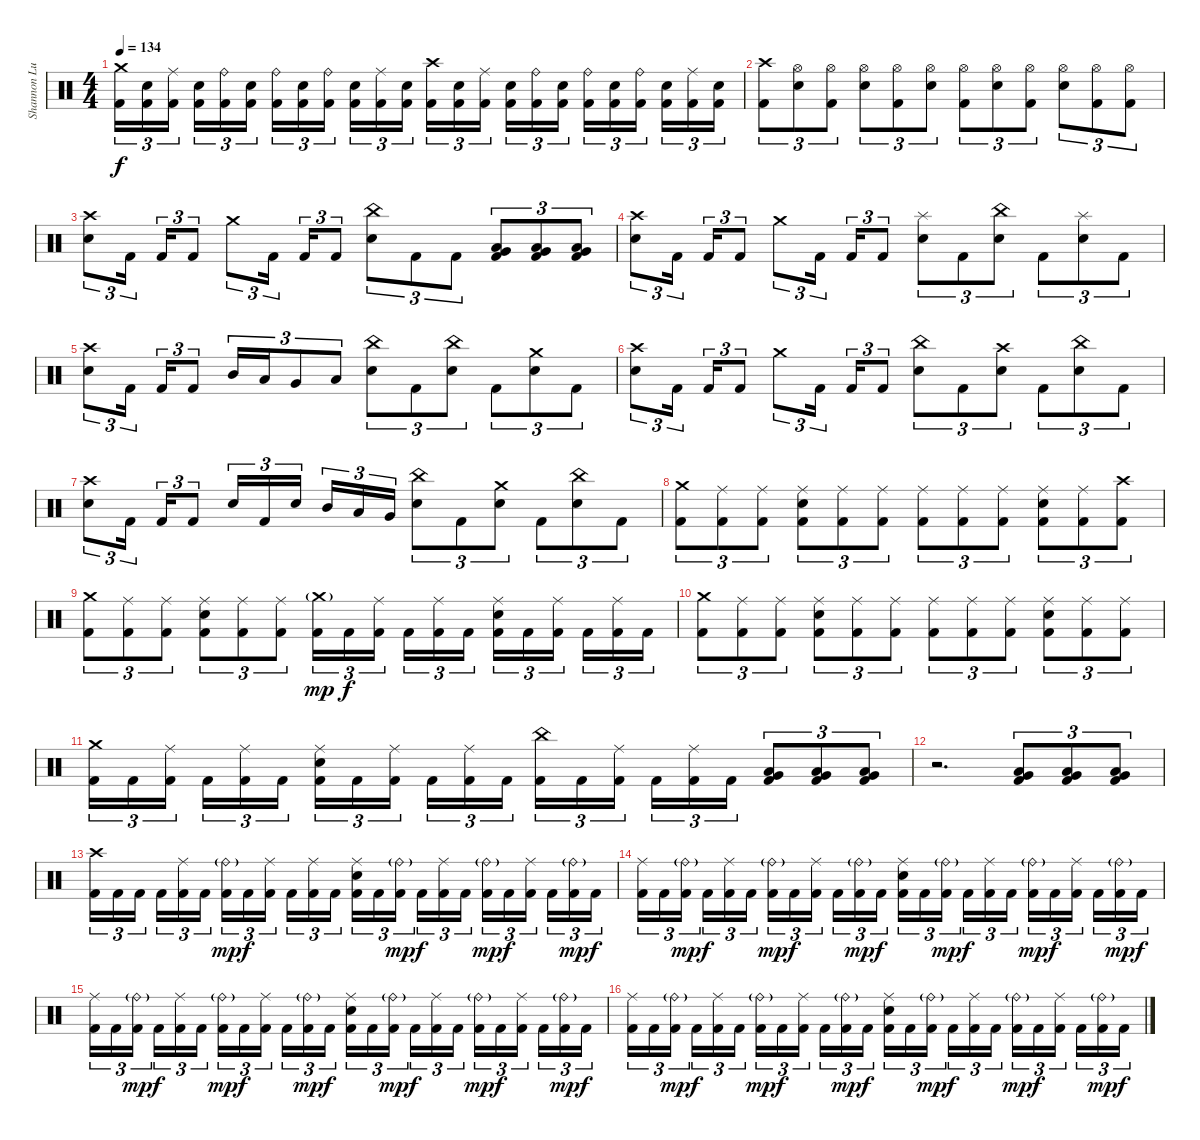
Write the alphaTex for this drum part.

\track ("Shannon Lucas [Drums (Since 2007)]" "Shannon Lu") {instrument percussion}
\staff {score}
\articulation defaults
\ts (4 4)
\tempo 134
\clef neutral
\ks c
("Crash medium (hit)" "Kick (hit) 2").16{tu (3 2) dy f} ("Snare (hit) 2" "Kick (hit) 2").16{tu (3 2)} ("Ride (middle)" "Kick (hit) 2").16{tu (3 2)} ("Snare (hit) 2" "Kick (hit) 2").16{tu (3 2)} ("Ride (bell)" "Kick (hit) 2").16{tu (3 2)} ("Snare (hit) 2" "Kick (hit) 2").16{tu (3 2)} ("Ride (bell)" "Kick (hit) 2").16{tu (3 2)} ("Snare (hit) 2" "Kick (hit) 2").16{tu (3 2)} ("Ride (bell)" "Kick (hit) 2").16{tu (3 2)} ("Snare (hit) 2" "Kick (hit) 2").16{tu (3 2)} ("Ride (middle)" "Kick (hit) 2").16{tu (3 2)} ("Snare (hit) 2" "Kick (hit) 2").16{tu (3 2)} ("Crash high (hit)" "Kick (hit) 2").16{tu (3 2)} ("Snare (hit) 2" "Kick (hit) 2").16{tu (3 2)} ("Ride (middle)" "Kick (hit) 2").16{tu (3 2)} ("Snare (hit) 2" "Kick (hit) 2").16{tu (3 2)} ("Ride (bell)" "Kick (hit) 2").16{tu (3 2)} ("Snare (hit) 2" "Kick (hit) 2").16{tu (3 2)} ("Ride (bell)" "Kick (hit) 2").16{tu (3 2)} ("Snare (hit) 2" "Kick (hit) 2").16{tu (3 2)} ("Ride (bell)" "Kick (hit) 2").16{tu (3 2)} ("Snare (hit) 2" "Kick (hit) 2").16{tu (3 2)} ("Ride (middle)" "Kick (hit) 2").16{tu (3 2)} ("Snare (hit) 2" "Kick (hit) 2").16{tu (3 2)} |
("Crash high (hit)" "Kick (hit) 2").8{tu (3 2)} ("Hi-Hat (open)" "Snare (hit) 2").8{tu (3 2)} ("Hi-Hat (open)" "Kick (hit) 2").8{tu (3 2)} ("Hi-Hat (open)" "Snare (hit) 2").8{tu (3 2)} ("Hi-Hat (open)" "Kick (hit) 2").8{tu (3 2)} ("Hi-Hat (open)" "Snare (hit) 2").8{tu (3 2)} ("Hi-Hat (open)" "Kick (hit) 2").8{tu (3 2)} ("Hi-Hat (open)" "Snare (hit) 2").8{tu (3 2)} ("Hi-Hat (open)" "Kick (hit) 2").8{tu (3 2)} ("Hi-Hat (open)" "Snare (hit) 2").8{tu (3 2)} ("Hi-Hat (open)" "Kick (hit) 2").8{tu (3 2)} ("Hi-Hat (open)" "Kick (hit) 2").8{tu (3 2)} |
("Crash high (hit)" "Snare (hit) 2").8{tu (3 2)} "Kick (hit) 2".16{tu (3 2)} "Kick (hit) 2".16{tu (3 2)} "Kick (hit) 2".8{tu (3 2)} "Crash medium (hit)".8{tu (3 2)} "Kick (hit) 2".16{tu (3 2)} "Kick (hit) 2".16{tu (3 2)} "Kick (hit) 2".8{tu (3 2)} ("China (hit)" "Snare (hit) 2").8{tu (3 2)} "Kick (hit) 2".8{tu (3 2)} "Kick (hit) 2".8{tu (3 2)} ("Low Floor Tom (hit)" "Very Low Tom (hit)" "Kick (hit) 2").8{tu (3 2)} ("Low Floor Tom (hit)" "Very Low Tom (hit)" "Kick (hit) 2").8{tu (3 2)} ("Low Floor Tom (hit)" "Very Low Tom (hit)" "Kick (hit) 2").8{tu (3 2)} |
("Crash high (hit)" "Snare (hit) 2").8{tu (3 2)} "Kick (hit) 2".16{tu (3 2)} "Kick (hit) 2".16{tu (3 2)} "Kick (hit) 2".8{tu (3 2)} "Crash medium (hit)".8{tu (3 2)} "Kick (hit) 2".16{tu (3 2)} "Kick (hit) 2".16{tu (3 2)} "Kick (hit) 2".8{tu (3 2)} ("Splash (hit)" "Snare (hit) 2").8{tu (3 2)} "Kick (hit) 2".8{tu (3 2)} ("China (hit)" "Snare (hit) 2").8{tu (3 2)} "Kick (hit) 2".8{tu (3 2)} ("Splash (hit)" "Snare (hit) 2").8{tu (3 2)} "Kick (hit) 2".8{tu (3 2)} |
("Crash high (hit)" "Snare (hit) 2").8{tu (3 2)} "Kick (hit) 2".16{tu (3 2)} "Kick (hit) 2".16{tu (3 2)} "Kick (hit) 2".8{tu (3 2)} "Mid Tom (hit)".16{tu (3 2)} "Low Tom (hit)".16{tu (3 2)} "Very Low Tom (hit)".8{tu (3 2)} "Low Floor Tom (hit)".8{tu (3 2)} ("China (hit)" "Snare (hit) 2").8{tu (3 2)} "Kick (hit) 2".8{tu (3 2)} ("China (hit)" "Snare (hit) 2").8{tu (3 2)} "Kick (hit) 2".8{tu (3 2)} ("Crash medium (hit)" "Snare (hit) 2").8{tu (3 2)} "Kick (hit) 2".8{tu (3 2)} |
("Crash high (hit)" "Snare (hit) 2").8{tu (3 2)} "Kick (hit) 2".16{tu (3 2)} "Kick (hit) 2".16{tu (3 2)} "Kick (hit) 2".8{tu (3 2)} "Crash medium (hit)".8{tu (3 2)} "Kick (hit) 2".16{tu (3 2)} "Kick (hit) 2".16{tu (3 2)} "Kick (hit) 2".8{tu (3 2)} ("China (hit)" "Snare (hit) 2").8{tu (3 2)} "Kick (hit) 2".8{tu (3 2)} ("Crash high (hit)" "Snare (hit) 2").8{tu (3 2)} "Kick (hit) 2".8{tu (3 2)} ("China (hit)" "Snare (hit) 2").8{tu (3 2)} "Kick (hit) 2".8{tu (3 2)} |
("Crash high (hit)" "Snare (hit) 2").8{tu (3 2)} "Kick (hit) 2".16{tu (3 2)} "Kick (hit) 2".16{tu (3 2)} "Kick (hit) 2".8{tu (3 2)} "Snare (hit) 2".16{tu (3 2)} "Kick (hit) 2".16{tu (3 2)} "Snare (hit) 2".16{tu (3 2)} "Mid Tom (hit)".16{tu (3 2)} "Low Tom (hit)".16{tu (3 2)} "Very Low Tom (hit)".16{tu (3 2)} ("China (hit)" "Snare (hit) 2").8{tu (3 2)} "Kick (hit) 2".8{tu (3 2)} ("Crash medium (hit)" "Snare (hit) 2").8{tu (3 2)} "Kick (hit) 2".8{tu (3 2)} ("China (hit)" "Snare (hit) 2").8{tu (3 2)} "Kick (hit) 2".8{tu (3 2)} |
("Crash medium (hit)" "Kick (hit) 2").8{tu (3 2)} ("Ride (middle)" "Kick (hit) 2").8{tu (3 2)} ("Ride (middle)" "Kick (hit) 2").8{tu (3 2)} ("Ride (middle)" "Snare (hit) 2" "Kick (hit) 2").8{tu (3 2)} ("Ride (middle)" "Kick (hit) 2").8{tu (3 2)} ("Ride (middle)" "Kick (hit) 2").8{tu (3 2)} ("Ride (middle)" "Kick (hit) 2").8{tu (3 2)} ("Ride (middle)" "Kick (hit) 2").8{tu (3 2)} ("Ride (middle)" "Kick (hit) 2").8{tu (3 2)} ("Ride (middle)" "Snare (hit) 2" "Kick (hit) 2").8{tu (3 2)} ("Ride (middle)" "Kick (hit) 2").8{tu (3 2)} ("Crash high (hit)" "Kick (hit) 2").8{tu (3 2)} |
("Crash medium (hit)" "Kick (hit) 2").8{tu (3 2)} ("Ride (middle)" "Kick (hit) 2").8{tu (3 2)} ("Ride (middle)" "Kick (hit) 2").8{tu (3 2)} ("Ride (middle)" "Snare (hit) 2" "Kick (hit) 2").8{tu (3 2)} ("Ride (middle)" "Kick (hit) 2").8{tu (3 2)} ("Ride (middle)" "Kick (hit) 2").8{tu (3 2)} ("Crash medium (hit)"{g} "Kick (hit) 2").16{tu (3 2) dy mp} "Kick (hit) 2".16{tu (3 2) dy f} ("Ride (middle)" "Kick (hit) 2").16{tu (3 2)} "Kick (hit) 2".16{tu (3 2)} ("Ride (middle)" "Kick (hit) 2").16{tu (3 2)} "Kick (hit) 2".16{tu (3 2)} ("Snare (hit) 2" "Ride (middle)" "Kick (hit) 2").16{tu (3 2)} "Kick (hit) 2".16{tu (3 2)} ("Ride (middle)" "Kick (hit) 2").16{tu (3 2)} "Kick (hit) 2".16{tu (3 2)} ("Ride (middle)" "Kick (hit) 2").16{tu (3 2)} "Kick (hit) 2".16{tu (3 2)} |
("Crash medium (hit)" "Kick (hit) 2").8{tu (3 2)} ("Ride (middle)" "Kick (hit) 2").8{tu (3 2)} ("Ride (middle)" "Kick (hit) 2").8{tu (3 2)} ("Ride (middle)" "Snare (hit) 2" "Kick (hit) 2").8{tu (3 2)} ("Ride (middle)" "Kick (hit) 2").8{tu (3 2)} ("Ride (middle)" "Kick (hit) 2").8{tu (3 2)} ("Ride (middle)" "Kick (hit) 2").8{tu (3 2)} ("Ride (middle)" "Kick (hit) 2").8{tu (3 2)} ("Ride (middle)" "Kick (hit) 2").8{tu (3 2)} ("Ride (middle)" "Snare (hit) 2" "Kick (hit) 2").8{tu (3 2)} ("Ride (middle)" "Kick (hit) 2").8{tu (3 2)} ("Ride (middle)" "Kick (hit) 2").8{tu (3 2)} |
("Crash medium (hit)" "Kick (hit) 2").16{tu (3 2)} "Kick (hit) 2".16{tu (3 2)} ("Ride (middle)" "Kick (hit) 2").16{tu (3 2)} "Kick (hit) 2".16{tu (3 2)} ("Ride (middle)" "Kick (hit) 2").16{tu (3 2)} "Kick (hit) 2".16{tu (3 2)} ("Ride (middle)" "Snare (hit) 2" "Kick (hit) 2").16{tu (3 2)} "Kick (hit) 2".16{tu (3 2)} ("Ride (middle)" "Kick (hit) 2").16{tu (3 2)} "Kick (hit) 2".16{tu (3 2)} ("Ride (middle)" "Kick (hit) 2").16{tu (3 2)} "Kick (hit) 2".16{tu (3 2)} ("China (hit)" "Kick (hit) 2").16{tu (3 2)} "Kick (hit) 2".16{tu (3 2)} ("Ride (middle)" "Kick (hit) 2").16{tu (3 2)} "Kick (hit) 2".16{tu (3 2)} ("Ride (middle)" "Kick (hit) 2").16{tu (3 2)} "Kick (hit) 2".16{tu (3 2)} ("Low Floor Tom (hit)" "Very Low Tom (hit)" "Kick (hit) 2").8{tu (3 2)} ("Low Floor Tom (hit)" "Very Low Tom (hit)" "Kick (hit) 2").8{tu (3 2)} ("Low Floor Tom (hit)" "Very Low Tom (hit)" "Kick (hit) 2").8{tu (3 2)} |
r.2{d} ("Very Low Tom (hit)" "Low Floor Tom (hit)" "Kick (hit) 2").8{tu (3 2)} ("Very Low Tom (hit)" "Low Floor Tom (hit)" "Kick (hit) 2").8{tu (3 2)} ("Very Low Tom (hit)" "Low Floor Tom (hit)" "Kick (hit) 2").8{tu (3 2)} |
("Crash high (hit)" "Kick (hit) 2").16{tu (3 2)} "Kick (hit) 2".16{tu (3 2)} "Kick (hit) 2".16{tu (3 2)} "Kick (hit) 2".16{tu (3 2)} ("Ride (middle)" "Kick (hit) 2").16{tu (3 2)} "Kick (hit) 2".16{tu (3 2)} ("Ride (bell)"{g} "Kick (hit) 2").16{tu (3 2) dy mp} "Kick (hit) 2".16{tu (3 2) dy f} ("Ride (middle)" "Kick (hit) 2").16{tu (3 2)} "Kick (hit) 2".16{tu (3 2)} ("Ride (middle)" "Kick (hit) 2").16{tu (3 2)} "Kick (hit) 2".16{tu (3 2)} ("Snare (hit) 2" "Ride (middle)" "Kick (hit) 2").16{tu (3 2)} "Kick (hit) 2".16{tu (3 2)} ("Ride (bell)"{g} "Kick (hit) 2").16{tu (3 2) dy mp} "Kick (hit) 2".16{tu (3 2) dy f} ("Ride (middle)" "Kick (hit) 2").16{tu (3 2)} "Kick (hit) 2".16{tu (3 2)} ("Ride (bell)"{g} "Kick (hit) 2").16{tu (3 2) dy mp} "Kick (hit) 2".16{tu (3 2) dy f} ("Ride (middle)" "Kick (hit) 2").16{tu (3 2)} "Kick (hit) 2".16{tu (3 2)} ("Ride (bell)"{g} "Kick (hit) 2").16{tu (3 2) dy mp} "Kick (hit) 2".16{tu (3 2) dy f} |
("Ride (middle)" "Kick (hit) 2").16{tu (3 2)} "Kick (hit) 2".16{tu (3 2)} ("Ride (bell)"{g} "Kick (hit) 2").16{tu (3 2) dy mp} "Kick (hit) 2".16{tu (3 2) dy f} ("Ride (middle)" "Kick (hit) 2").16{tu (3 2)} "Kick (hit) 2".16{tu (3 2)} ("Ride (bell)"{g} "Kick (hit) 2").16{tu (3 2) dy mp} "Kick (hit) 2".16{tu (3 2) dy f} ("Ride (middle)" "Kick (hit) 2").16{tu (3 2)} "Kick (hit) 2".16{tu (3 2)} ("Ride (bell)"{g} "Kick (hit) 2").16{tu (3 2) dy mp} "Kick (hit) 2".16{tu (3 2) dy f} ("Snare (hit) 2" "Ride (middle)" "Kick (hit) 2").16{tu (3 2)} "Kick (hit) 2".16{tu (3 2)} ("Ride (bell)"{g} "Kick (hit) 2").16{tu (3 2) dy mp} "Kick (hit) 2".16{tu (3 2) dy f} ("Ride (middle)" "Kick (hit) 2").16{tu (3 2)} "Kick (hit) 2".16{tu (3 2)} ("Ride (bell)"{g} "Kick (hit) 2").16{tu (3 2) dy mp} "Kick (hit) 2".16{tu (3 2) dy f} ("Ride (middle)" "Kick (hit) 2").16{tu (3 2)} "Kick (hit) 2".16{tu (3 2)} ("Ride (bell)"{g} "Kick (hit) 2").16{tu (3 2) dy mp} "Kick (hit) 2".16{tu (3 2) dy f} |
("Ride (middle)" "Kick (hit) 2").16{tu (3 2)} "Kick (hit) 2".16{tu (3 2)} ("Ride (bell)"{g} "Kick (hit) 2").16{tu (3 2) dy mp} "Kick (hit) 2".16{tu (3 2) dy f} ("Ride (middle)" "Kick (hit) 2").16{tu (3 2)} "Kick (hit) 2".16{tu (3 2)} ("Ride (bell)"{g} "Kick (hit) 2").16{tu (3 2) dy mp} "Kick (hit) 2".16{tu (3 2) dy f} ("Ride (middle)" "Kick (hit) 2").16{tu (3 2)} "Kick (hit) 2".16{tu (3 2)} ("Ride (bell)"{g} "Kick (hit) 2").16{tu (3 2) dy mp} "Kick (hit) 2".16{tu (3 2) dy f} ("Snare (hit) 2" "Ride (middle)" "Kick (hit) 2").16{tu (3 2)} "Kick (hit) 2".16{tu (3 2)} ("Ride (bell)"{g} "Kick (hit) 2").16{tu (3 2) dy mp} "Kick (hit) 2".16{tu (3 2) dy f} ("Ride (middle)" "Kick (hit) 2").16{tu (3 2)} "Kick (hit) 2".16{tu (3 2)} ("Ride (bell)"{g} "Kick (hit) 2").16{tu (3 2) dy mp} "Kick (hit) 2".16{tu (3 2) dy f} ("Ride (middle)" "Kick (hit) 2").16{tu (3 2)} "Kick (hit) 2".16{tu (3 2)} ("Ride (bell)"{g} "Kick (hit) 2").16{tu (3 2) dy mp} "Kick (hit) 2".16{tu (3 2) dy f} |
("Ride (middle)" "Kick (hit) 2").16{tu (3 2)} "Kick (hit) 2".16{tu (3 2)} ("Ride (bell)"{g} "Kick (hit) 2").16{tu (3 2) dy mp} "Kick (hit) 2".16{tu (3 2) dy f} ("Ride (middle)" "Kick (hit) 2").16{tu (3 2)} "Kick (hit) 2".16{tu (3 2)} ("Ride (bell)"{g} "Kick (hit) 2").16{tu (3 2) dy mp} "Kick (hit) 2".16{tu (3 2) dy f} ("Ride (middle)" "Kick (hit) 2").16{tu (3 2)} "Kick (hit) 2".16{tu (3 2)} ("Ride (bell)"{g} "Kick (hit) 2").16{tu (3 2) dy mp} "Kick (hit) 2".16{tu (3 2) dy f} ("Snare (hit) 2" "Ride (middle)" "Kick (hit) 2").16{tu (3 2)} "Kick (hit) 2".16{tu (3 2)} ("Ride (bell)"{g} "Kick (hit) 2").16{tu (3 2) dy mp} "Kick (hit) 2".16{tu (3 2) dy f} ("Ride (middle)" "Kick (hit) 2").16{tu (3 2)} "Kick (hit) 2".16{tu (3 2)} ("Ride (bell)"{g} "Kick (hit) 2").16{tu (3 2) dy mp} "Kick (hit) 2".16{tu (3 2) dy f} ("Ride (middle)" "Kick (hit) 2").16{tu (3 2)} "Kick (hit) 2".16{tu (3 2)} ("Ride (bell)"{g} "Kick (hit) 2").16{tu (3 2) dy mp} "Kick (hit) 2".16{tu (3 2) dy f}
